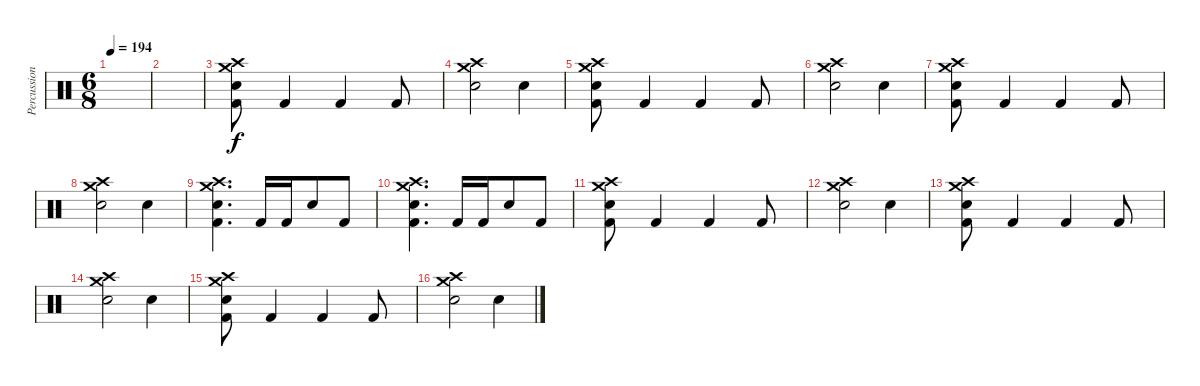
\track ("Percussion" "Percussion") {instrument percussion}
\staff {score}
\articulation defaults
\ts (6 8)
\tempo 194
\clef neutral
\ks c
|
|
("Kick (hit) 2" "Snare (hit) 2" "Crash high (hit)" "Crash medium (hit)").8 "Kick (hit) 2".4 "Kick (hit) 2".4 "Kick (hit) 2".8 |
("Snare (hit) 2" "Crash medium (hit)" "Crash high (hit)").2 "Snare (hit) 2".4 |
("Kick (hit) 2" "Snare (hit) 2" "Crash high (hit)" "Crash medium (hit)").8 "Kick (hit) 2".4 "Kick (hit) 2".4 "Kick (hit) 2".8 |
("Snare (hit) 2" "Crash medium (hit)" "Crash high (hit)").2 "Snare (hit) 2".4 |
("Kick (hit) 2" "Snare (hit) 2" "Crash high (hit)" "Crash medium (hit)").8 "Kick (hit) 2".4 "Kick (hit) 2".4 "Kick (hit) 2".8 |
("Snare (hit) 2" "Crash medium (hit)" "Crash high (hit)").2 "Snare (hit) 2".4 |
("Kick (hit) 2" "Snare (hit) 2" "Crash high (hit)" "Crash medium (hit)").4{d} "Kick (hit) 2".16 "Kick (hit) 2".16 "Snare (hit) 2".8 "Kick (hit) 2".8 |
("Kick (hit) 2" "Snare (hit) 2" "Crash high (hit)" "Crash medium (hit)").4{d} "Kick (hit) 2".16 "Kick (hit) 2".16 "Snare (hit) 2".8 "Kick (hit) 2".8 |
("Kick (hit) 2" "Snare (hit) 2" "Crash high (hit)" "Crash medium (hit)").8 "Kick (hit) 2".4 "Kick (hit) 2".4 "Kick (hit) 2".8 |
("Snare (hit) 2" "Crash medium (hit)" "Crash high (hit)").2 "Snare (hit) 2".4 |
("Kick (hit) 2" "Snare (hit) 2" "Crash high (hit)" "Crash medium (hit)").8 "Kick (hit) 2".4 "Kick (hit) 2".4 "Kick (hit) 2".8 |
("Snare (hit) 2" "Crash medium (hit)" "Crash high (hit)").2 "Snare (hit) 2".4 |
("Kick (hit) 2" "Snare (hit) 2" "Crash high (hit)" "Crash medium (hit)").8 "Kick (hit) 2".4 "Kick (hit) 2".4 "Kick (hit) 2".8 |
("Snare (hit) 2" "Crash medium (hit)" "Crash high (hit)").2 "Snare (hit) 2".4
